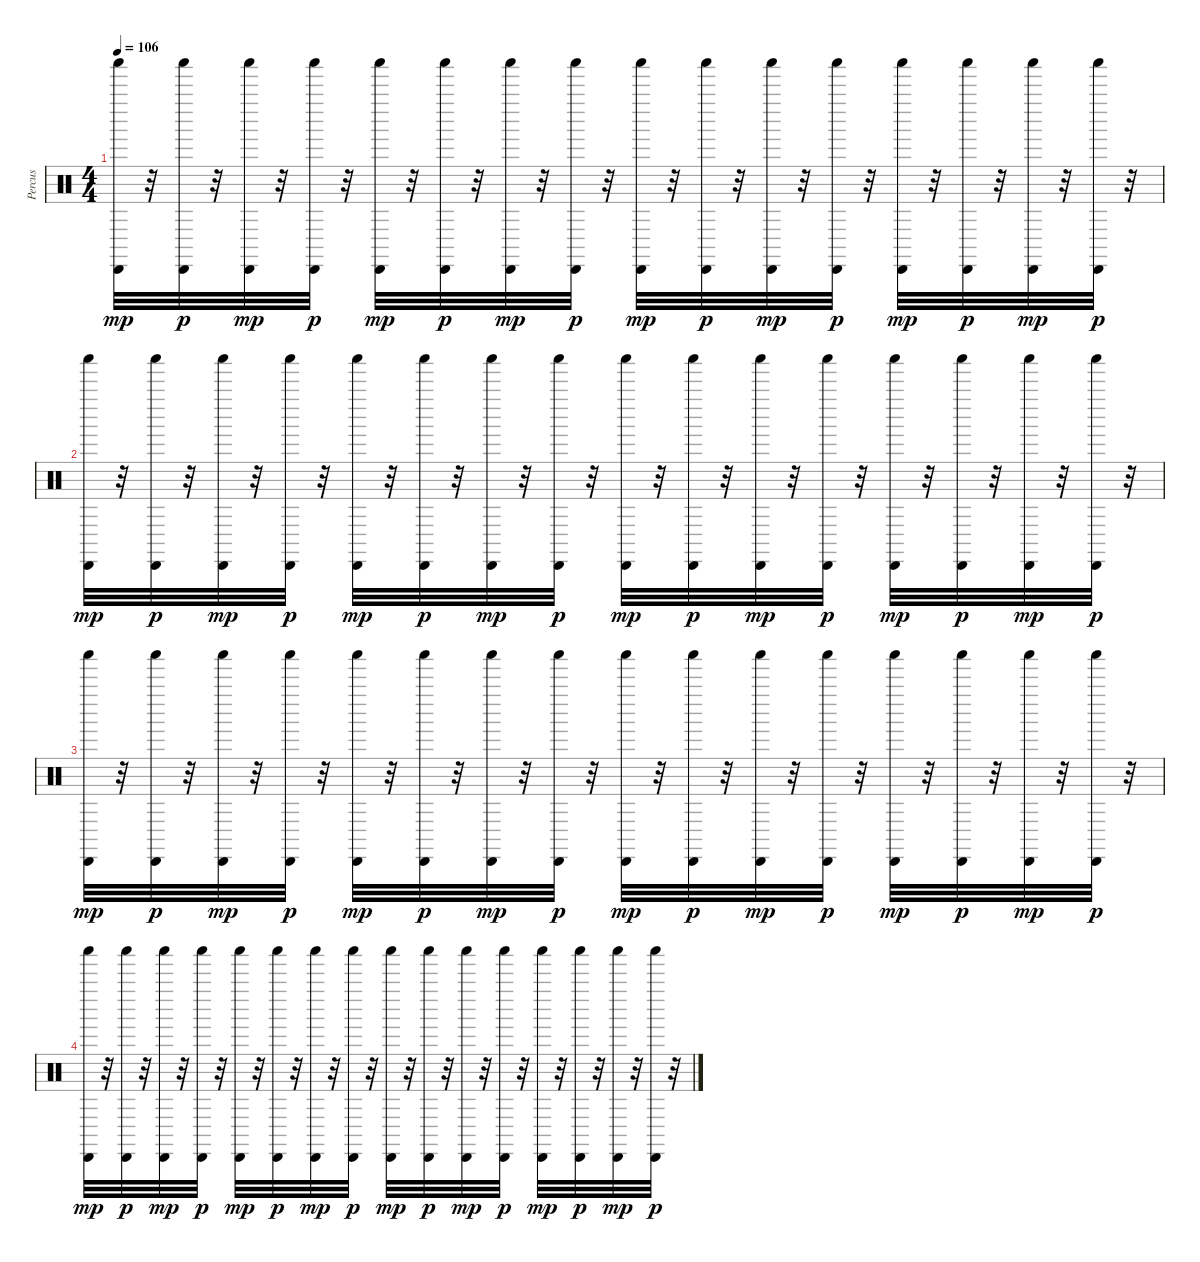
\track ("Percus" "Percus") {instrument percussion}
\staff {score}
\articulation defaults
\ts (4 4)
\tempo 106
\clef neutral
\ks c
("Shaker (hit)" "Cabasa (hit)").32{dy mp} r.32 ("Shaker (hit)" "Cabasa (hit)").32{dy p} r.32 ("Shaker (hit)" "Cabasa (hit)").32{dy mp} r.32 ("Shaker (hit)" "Cabasa (hit)").32{dy p} r.32 ("Shaker (hit)" "Cabasa (hit)").32{dy mp} r.32 ("Shaker (hit)" "Cabasa (hit)").32{dy p} r.32 ("Shaker (hit)" "Cabasa (hit)").32{dy mp} r.32 ("Shaker (hit)" "Cabasa (hit)").32{dy p} r.32 ("Shaker (hit)" "Cabasa (hit)").32{dy mp} r.32 ("Shaker (hit)" "Cabasa (hit)").32{dy p} r.32 ("Shaker (hit)" "Cabasa (hit)").32{dy mp} r.32 ("Shaker (hit)" "Cabasa (hit)").32{dy p} r.32 ("Shaker (hit)" "Cabasa (hit)").32{dy mp} r.32 ("Shaker (hit)" "Cabasa (hit)").32{dy p} r.32 ("Shaker (hit)" "Cabasa (hit)").32{dy mp} r.32 ("Shaker (hit)" "Cabasa (hit)").32{dy p} r.32 |
("Shaker (hit)" "Cabasa (hit)").32{dy mp} r.32 ("Shaker (hit)" "Cabasa (hit)").32{dy p} r.32 ("Shaker (hit)" "Cabasa (hit)").32{dy mp} r.32 ("Shaker (hit)" "Cabasa (hit)").32{dy p} r.32 ("Shaker (hit)" "Cabasa (hit)").32{dy mp} r.32 ("Shaker (hit)" "Cabasa (hit)").32{dy p} r.32 ("Shaker (hit)" "Cabasa (hit)").32{dy mp} r.32 ("Shaker (hit)" "Cabasa (hit)").32{dy p} r.32 ("Shaker (hit)" "Cabasa (hit)").32{dy mp} r.32 ("Shaker (hit)" "Cabasa (hit)").32{dy p} r.32 ("Shaker (hit)" "Cabasa (hit)").32{dy mp} r.32 ("Shaker (hit)" "Cabasa (hit)").32{dy p} r.32 ("Shaker (hit)" "Cabasa (hit)").32{dy mp} r.32 ("Shaker (hit)" "Cabasa (hit)").32{dy p} r.32 ("Shaker (hit)" "Cabasa (hit)").32{dy mp} r.32 ("Shaker (hit)" "Cabasa (hit)").32{dy p} r.32 |
("Shaker (hit)" "Cabasa (hit)").32{dy mp} r.32 ("Shaker (hit)" "Cabasa (hit)").32{dy p} r.32 ("Shaker (hit)" "Cabasa (hit)").32{dy mp} r.32 ("Shaker (hit)" "Cabasa (hit)").32{dy p} r.32 ("Shaker (hit)" "Cabasa (hit)").32{dy mp} r.32 ("Shaker (hit)" "Cabasa (hit)").32{dy p} r.32 ("Shaker (hit)" "Cabasa (hit)").32{dy mp} r.32 ("Shaker (hit)" "Cabasa (hit)").32{dy p} r.32 ("Shaker (hit)" "Cabasa (hit)").32{dy mp} r.32 ("Shaker (hit)" "Cabasa (hit)").32{dy p} r.32 ("Shaker (hit)" "Cabasa (hit)").32{dy mp} r.32 ("Shaker (hit)" "Cabasa (hit)").32{dy p} r.32 ("Shaker (hit)" "Cabasa (hit)").32{dy mp} r.32 ("Shaker (hit)" "Cabasa (hit)").32{dy p} r.32 ("Shaker (hit)" "Cabasa (hit)").32{dy mp} r.32 ("Shaker (hit)" "Cabasa (hit)").32{dy p} r.32 |
("Shaker (hit)" "Cabasa (hit)").32{dy mp} r.32 ("Shaker (hit)" "Cabasa (hit)").32{dy p} r.32 ("Shaker (hit)" "Cabasa (hit)").32{dy mp} r.32 ("Shaker (hit)" "Cabasa (hit)").32{dy p} r.32 ("Shaker (hit)" "Cabasa (hit)").32{dy mp} r.32 ("Shaker (hit)" "Cabasa (hit)").32{dy p} r.32 ("Shaker (hit)" "Cabasa (hit)").32{dy mp} r.32 ("Shaker (hit)" "Cabasa (hit)").32{dy p} r.32 ("Shaker (hit)" "Cabasa (hit)").32{dy mp} r.32 ("Shaker (hit)" "Cabasa (hit)").32{dy p} r.32 ("Shaker (hit)" "Cabasa (hit)").32{dy mp} r.32 ("Shaker (hit)" "Cabasa (hit)").32{dy p} r.32 ("Shaker (hit)" "Cabasa (hit)").32{dy mp} r.32 ("Shaker (hit)" "Cabasa (hit)").32{dy p} r.32 ("Shaker (hit)" "Cabasa (hit)").32{dy mp} r.32 ("Shaker (hit)" "Cabasa (hit)").32{dy p} r.32
